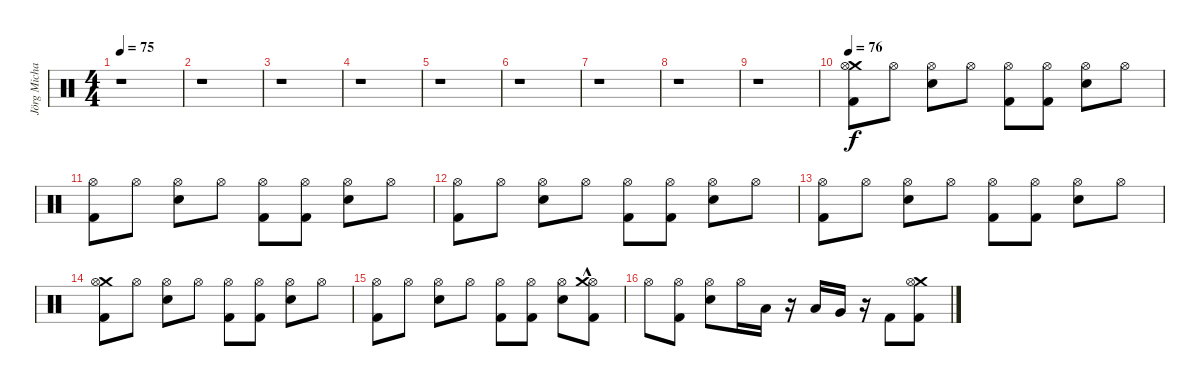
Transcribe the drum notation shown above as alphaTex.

\track ("Jörg Michael" "Jörg Micha") {instrument percussion}
\staff {score}
\articulation defaults
\ts (4 4)
\tempo 75
\clef neutral
\ks c
r.1{dy f} |
r.1 |
r.1 |
r.1 |
r.1 |
r.1 |
r.1 |
r.1 |
r.1 |
\tempo 76
("Crash medium (hit)" "Kick (hit) 2" "Hi-Hat (open)").8 "Hi-Hat (open)".8 ("Electric Snare (hit)" "Hi-Hat (open)").8 "Hi-Hat (open)".8 ("Kick (hit) 2" "Hi-Hat (open)").8 ("Kick (hit) 2" "Hi-Hat (open)").8 ("Electric Snare (hit)" "Hi-Hat (open)").8 "Hi-Hat (open)".8 |
("Kick (hit) 2" "Hi-Hat (open)").8 "Hi-Hat (open)".8 ("Electric Snare (hit)" "Hi-Hat (open)").8 "Hi-Hat (open)".8 ("Kick (hit) 2" "Hi-Hat (open)").8 ("Kick (hit) 2" "Hi-Hat (open)").8 ("Electric Snare (hit)" "Hi-Hat (open)").8 "Hi-Hat (open)".8 |
("Kick (hit) 2" "Hi-Hat (open)").8 "Hi-Hat (open)".8 ("Electric Snare (hit)" "Hi-Hat (open)").8 "Hi-Hat (open)".8 ("Kick (hit) 2" "Hi-Hat (open)").8 ("Kick (hit) 2" "Hi-Hat (open)").8 ("Electric Snare (hit)" "Hi-Hat (open)").8 "Hi-Hat (open)".8 |
("Kick (hit) 2" "Hi-Hat (open)").8 "Hi-Hat (open)".8 ("Electric Snare (hit)" "Hi-Hat (open)").8 "Hi-Hat (open)".8 ("Kick (hit) 2" "Hi-Hat (open)").8 ("Kick (hit) 2" "Hi-Hat (open)").8 ("Electric Snare (hit)" "Hi-Hat (open)").8 "Hi-Hat (open)".8 |
("Crash medium (hit)" "Kick (hit) 2" "Hi-Hat (open)").8 "Hi-Hat (open)".8 ("Electric Snare (hit)" "Hi-Hat (open)").8 "Hi-Hat (open)".8 ("Kick (hit) 2" "Hi-Hat (open)").8 ("Kick (hit) 2" "Hi-Hat (open)").8 ("Electric Snare (hit)" "Hi-Hat (open)").8 "Hi-Hat (open)".8 |
("Kick (hit) 2" "Hi-Hat (open)").8 "Hi-Hat (open)".8 ("Electric Snare (hit)" "Hi-Hat (open)").8 "Hi-Hat (open)".8 ("Kick (hit) 2" "Hi-Hat (open)").8 ("Kick (hit) 2" "Hi-Hat (open)").8 ("Electric Snare (hit)" "Hi-Hat (open)").8 ("Hi-Hat (open)" "Crash medium (hit)"{hac} "Kick (hit) 2").8 |
"Hi-Hat (open)".8 ("Kick (hit) 2" "Hi-Hat (open)").8 ("Electric Snare (hit)" "Hi-Hat (open)").8 "Hi-Hat (open)".16 "Low Tom (hit)".16 r.16 "Low Tom (hit)".16 "Very Low Tom (hit)".16 r.16 "Kick (hit) 2".8 ("Crash medium (hit)" "Hi-Hat (open)" "Kick (hit) 2").8
